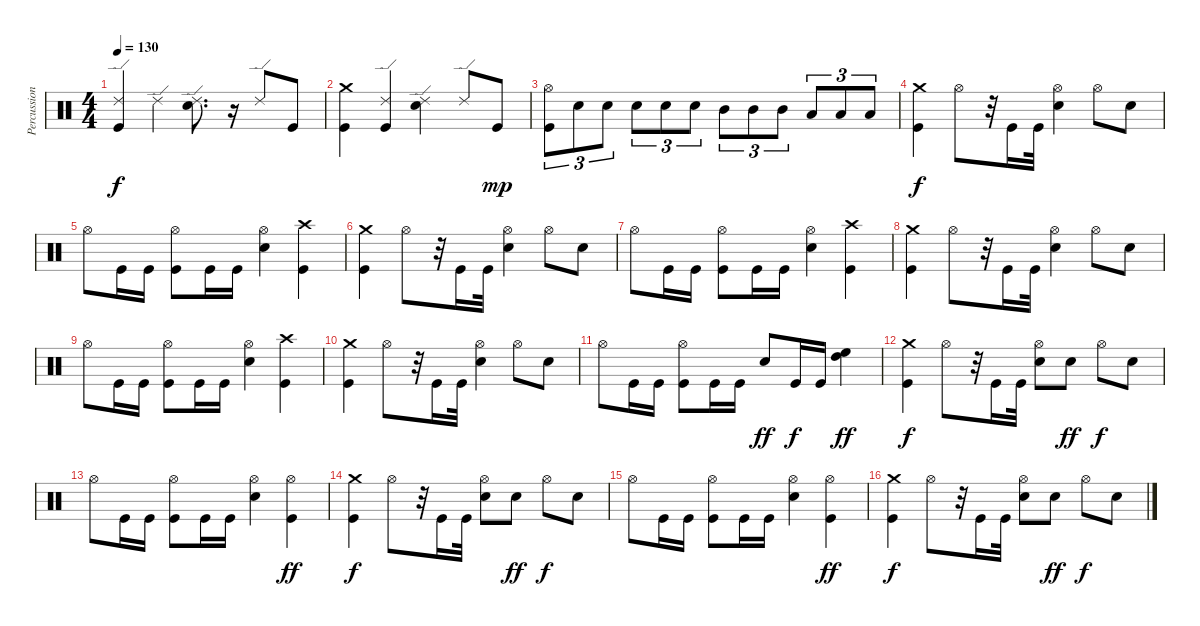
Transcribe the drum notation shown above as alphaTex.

\track ("Percussion" "Percussion") {instrument percussion}
\staff {score}
\articulation defaults
\ts (4 4)
\tempo 130
\clef neutral
\ks c
("Ride (edge) 2" "Kick (hit)").4{dy f} "Ride (edge) 2".4 ("Ride (edge) 2" "Electric Snare (hit)").8{d} r.16 "Ride (edge) 2".8 "Kick (hit)".8 |
("Crash medium (hit)" "Kick (hit)").4 ("Ride (edge) 2" "Kick (hit)").4 ("Ride (edge) 2" "Electric Snare (hit)").4 "Ride (edge) 2".8 "Kick (hit)".8{dy mp} |
("Hi-Hat (open)" "Kick (hit)").8{tu (3 2)} "Electric Snare (hit)".8{tu (3 2)} "Electric Snare (hit)".8{tu (3 2)} "Electric Snare (hit)".8{tu (3 2)} "Electric Snare (hit)".8{tu (3 2)} "Electric Snare (hit)".8{tu (3 2)} "Mid Tom (hit)".8{tu (3 2)} "Mid Tom (hit)".8{tu (3 2)} "Mid Tom (hit)".8{tu (3 2)} "Low Tom (hit)".8{tu (3 2)} "Low Tom (hit)".8{tu (3 2)} "Low Tom (hit)".8{tu (3 2)} |
("Crash medium (hit)" "Kick (hit)").4{dy f} "Hi-Hat (open)".8 r.32 "Kick (hit)".16 "Kick (hit)".32 ("Hi-Hat (open)" "Snare (hit) 2").4 "Hi-Hat (open)".8 "Snare (hit) 2".8 |
"Hi-Hat (open)".8 "Kick (hit)".16 "Kick (hit)".16 ("Hi-Hat (open)" "Kick (hit)").8 "Kick (hit)".16 "Kick (hit)".16 ("Hi-Hat (open)" "Snare (hit) 2").4 ("Crash high (hit)" "Kick (hit)").4 |
("Crash medium (hit)" "Kick (hit)").4 "Hi-Hat (open)".8 r.32 "Kick (hit)".16 "Kick (hit)".32 ("Hi-Hat (open)" "Snare (hit) 2").4 "Hi-Hat (open)".8 "Snare (hit) 2".8 |
"Hi-Hat (open)".8 "Kick (hit)".16 "Kick (hit)".16 ("Hi-Hat (open)" "Kick (hit)").8 "Kick (hit)".16 "Kick (hit)".16 ("Hi-Hat (open)" "Snare (hit) 2").4 ("Crash high (hit)" "Kick (hit)").4 |
("Crash medium (hit)" "Kick (hit)").4 "Hi-Hat (open)".8 r.32 "Kick (hit)".16 "Kick (hit)".32 ("Hi-Hat (open)" "Snare (hit) 2").4 "Hi-Hat (open)".8 "Snare (hit) 2".8 |
"Hi-Hat (open)".8 "Kick (hit)".16 "Kick (hit)".16 ("Hi-Hat (open)" "Kick (hit)").8 "Kick (hit)".16 "Kick (hit)".16 ("Hi-Hat (open)" "Snare (hit) 2").4 ("Crash high (hit)" "Kick (hit)").4 |
("Crash medium (hit)" "Kick (hit)").4 "Hi-Hat (open)".8 r.32 "Kick (hit)".16 "Kick (hit)".32 ("Hi-Hat (open)" "Snare (hit) 2").4 "Hi-Hat (open)".8 "Snare (hit) 2".8 |
"Hi-Hat (open)".8 "Kick (hit)".16 "Kick (hit)".16 ("Hi-Hat (open)" "Kick (hit)").8 "Kick (hit)".16 "Kick (hit)".16 "Snare (hit) 2".8{dy ff} "Kick (hit)".16{dy f} "Kick (hit)".16 ("High Tom (hit)" "High Floor Tom (hit)").4{dy ff} |
("Crash medium (hit)" "Kick (hit)").4{dy f} "Hi-Hat (open)".8 r.32 "Kick (hit)".16 "Kick (hit)".32 ("Hi-Hat (open)" "Snare (hit) 2").8 "Snare (hit) 2".8{dy ff} "Hi-Hat (open)".8{dy f} "Snare (hit) 2".8 |
"Hi-Hat (open)".8 "Kick (hit)".16 "Kick (hit)".16 ("Hi-Hat (open)" "Kick (hit)").8 "Kick (hit)".16 "Kick (hit)".16 ("Hi-Hat (open)" "Snare (hit) 2").4 ("Hi-Hat (open)" "Kick (hit)").4{dy ff} |
("Crash medium (hit)" "Kick (hit)").4{dy f} "Hi-Hat (open)".8 r.32 "Kick (hit)".16 "Kick (hit)".32 ("Hi-Hat (open)" "Snare (hit) 2").8 "Snare (hit) 2".8{dy ff} "Hi-Hat (open)".8{dy f} "Snare (hit) 2".8 |
"Hi-Hat (open)".8 "Kick (hit)".16 "Kick (hit)".16 ("Hi-Hat (open)" "Kick (hit)").8 "Kick (hit)".16 "Kick (hit)".16 ("Hi-Hat (open)" "Snare (hit) 2").4 ("Hi-Hat (open)" "Kick (hit)").4{dy ff} |
("Crash medium (hit)" "Kick (hit)").4{dy f} "Hi-Hat (open)".8 r.32 "Kick (hit)".16 "Kick (hit)".32 ("Hi-Hat (open)" "Snare (hit) 2").8 "Snare (hit) 2".8{dy ff} "Hi-Hat (open)".8{dy f} "Snare (hit) 2".8
